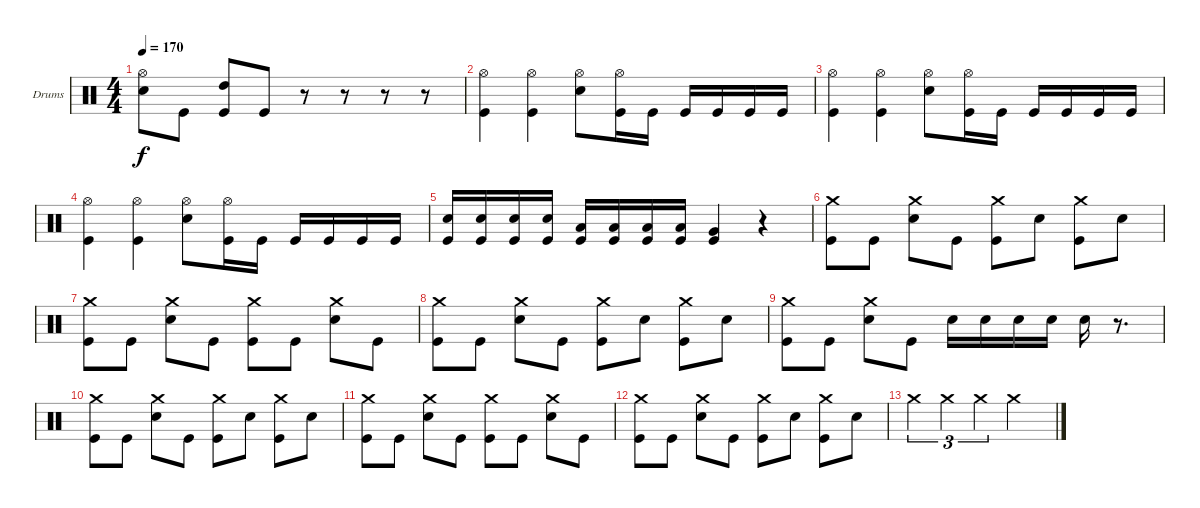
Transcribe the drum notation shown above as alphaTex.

\defaultSystemsLayout 4
\bracketExtendMode groupsimilarinstruments
\firstSystemTrackNameOrientation horizontal
\otherSystemsTrackNameOrientation horizontal
\track ("Drumkit" "Drums") {instrument percussion}
\staff {score}
\articulation defaults
\ts (4 4)
\tempo 170
\clef neutral
\scale
0.333333
\ks c
("Hi-Hat (open)" "Snare (hit) 2").8{dy f} "Kick (hit)".8 ("High Tom (hit)" "Kick (hit)").8 "Kick (hit)".8 r.8 r.8 r.8 r.8 |
\scale
0.333333 ("Hi-Hat (open)" "Kick (hit)").4 ("Hi-Hat (open)" "Kick (hit)").4 ("Hi-Hat (open)" "Snare (hit) 2").8 ("Hi-Hat (open)" "Kick (hit)").16 "Kick (hit)".16 "Kick (hit)".16 "Kick (hit)".16 "Kick (hit)".16 "Kick (hit)".16 |
("Hi-Hat (open)" "Kick (hit)").4 ("Hi-Hat (open)" "Kick (hit)").4 ("Hi-Hat (open)" "Snare (hit) 2").8 ("Hi-Hat (open)" "Kick (hit)").16 "Kick (hit)".16 "Kick (hit)".16 "Kick (hit)".16 "Kick (hit)".16 "Kick (hit)".16 |
\scale
0.333333 ("Hi-Hat (open)" "Kick (hit)").4 ("Hi-Hat (open)" "Kick (hit)").4 ("Hi-Hat (open)" "Snare (hit) 2").8 ("Hi-Hat (open)" "Kick (hit)").16 "Kick (hit)".16 "Kick (hit)".16 "Kick (hit)".16 "Kick (hit)".16 "Kick (hit)".16 |
\scale
0.333333 ("Snare (hit) 2" "Kick (hit)").16 ("Snare (hit) 2" "Kick (hit)").16 ("Snare (hit) 2" "Kick (hit)").16 ("Snare (hit) 2" "Kick (hit)").16 ("Low Tom (hit)" "Kick (hit)").16 ("Low Tom (hit)" "Kick (hit)").16 ("Low Tom (hit)" "Kick (hit)").16 ("Low Tom (hit)" "Kick (hit)").16 ("Very Low Tom (hit)" "Kick (hit)").4 r.4 |
\scale
0.333333 ("Crash medium (hit)" "Kick (hit)").8 "Kick (hit)".8 ("Crash medium (hit)" "Snare (hit) 2").8 "Kick (hit)".8 ("Crash medium (hit)" "Kick (hit)").8 "Snare (hit) 2".8 ("Crash medium (hit)" "Kick (hit)").8 "Snare (hit) 2".8 |
\scale
0.333333 ("Crash medium (hit)" "Kick (hit)").8 "Kick (hit)".8 ("Crash medium (hit)" "Snare (hit) 2").8 "Kick (hit)".8 ("Crash medium (hit)" "Kick (hit)").8 "Kick (hit)".8 ("Crash medium (hit)" "Snare (hit) 2").8 "Kick (hit)".8 |
\scale
0.333333 ("Crash medium (hit)" "Kick (hit)").8 "Kick (hit)".8 ("Crash medium (hit)" "Snare (hit) 2").8 "Kick (hit)".8 ("Crash medium (hit)" "Kick (hit)").8 "Snare (hit) 2".8 ("Crash medium (hit)" "Kick (hit)").8 "Snare (hit) 2".8 |
\scale
0.333333 ("Crash medium (hit)" "Kick (hit)").8 "Kick (hit)".8 ("Crash medium (hit)" "Snare (hit) 2").8 "Kick (hit)".8 "Snare (hit) 2".16 "Snare (hit) 2".16 "Snare (hit) 2".16 "Snare (hit) 2".16 "Snare (hit) 2".16 r.8{d} |
\scale
0.333333 ("Crash medium (hit)" "Kick (hit)").8 "Kick (hit)".8 ("Crash medium (hit)" "Snare (hit) 2").8 "Kick (hit)".8 ("Crash medium (hit)" "Kick (hit)").8 "Snare (hit) 2".8 ("Crash medium (hit)" "Kick (hit)").8 "Snare (hit) 2".8 |
("Crash medium (hit)" "Kick (hit)").8 "Kick (hit)".8 ("Crash medium (hit)" "Snare (hit) 2").8 "Kick (hit)".8 ("Crash medium (hit)" "Kick (hit)").8 "Kick (hit)".8 ("Crash medium (hit)" "Snare (hit) 2").8 "Kick (hit)".8 |
("Crash medium (hit)" "Kick (hit)").8 "Kick (hit)".8 ("Crash medium (hit)" "Snare (hit) 2").8 "Kick (hit)".8 ("Crash medium (hit)" "Kick (hit)").8 "Snare (hit) 2".8 ("Crash medium (hit)" "Kick (hit)").8 "Snare (hit) 2".8 |
"Crash medium (hit)".4{tu (3 2)} "Crash medium (hit)".4{tu (3 2)} "Crash medium (hit)".4{tu (3 2)} "Crash medium (hit)".2
